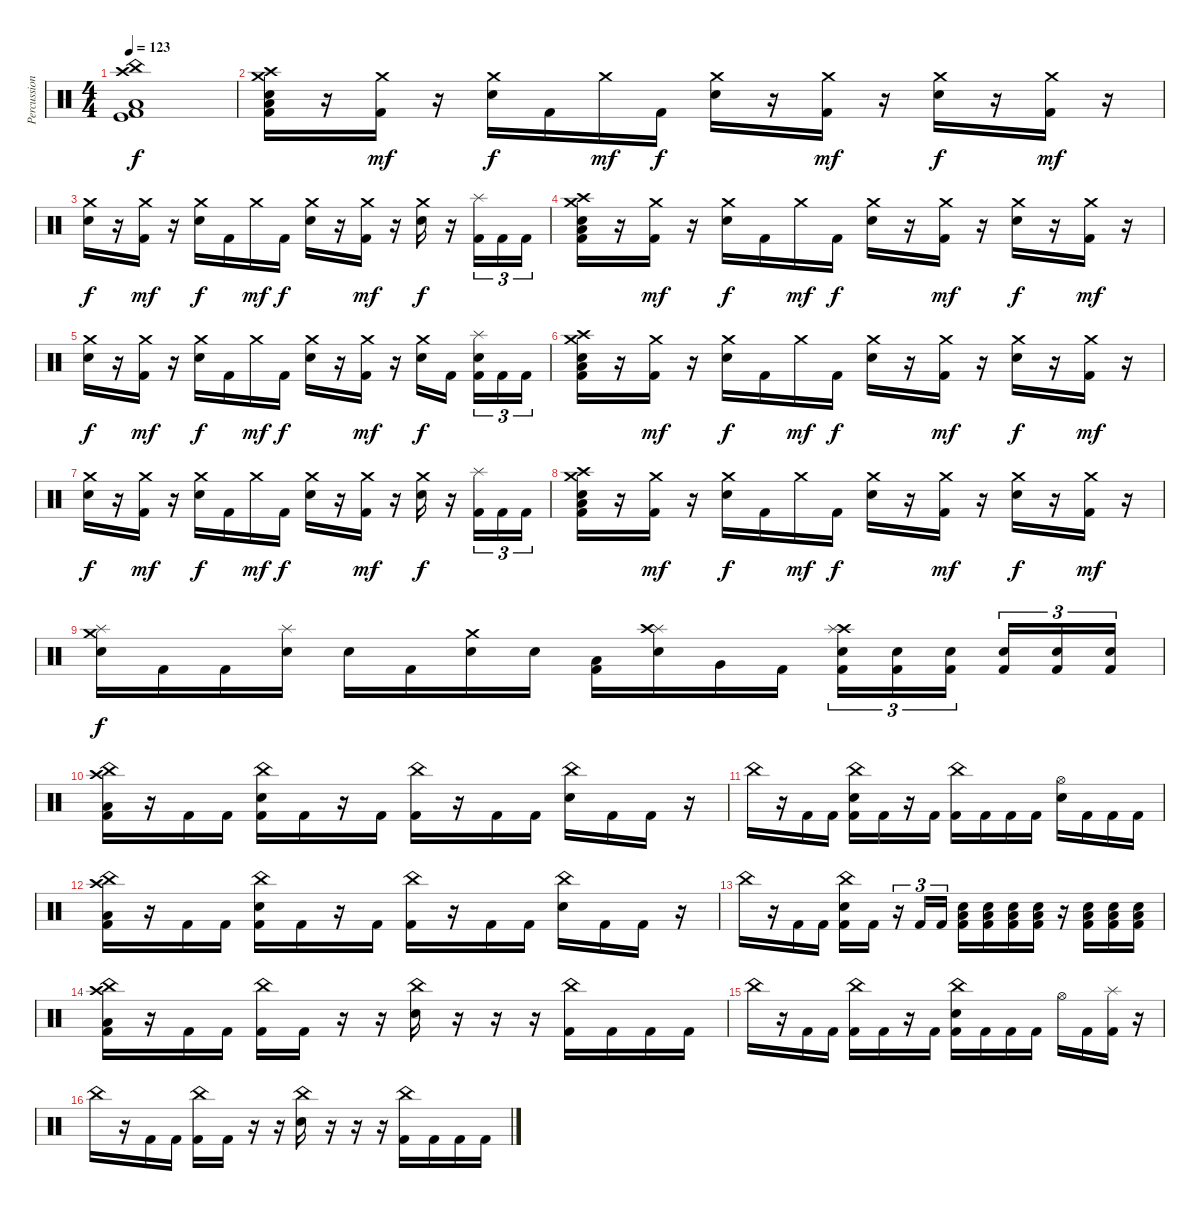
\track ("Percussion" "Percussion") {instrument percussion}
\staff {score}
\articulation defaults
\ts (4 4)
\tempo 123
\clef neutral
\ks c
("China (hit)" "Crash high (hit)" "Low Floor Tom (hit)" "Kick (hit)" "Kick (hit) 2").1{dy f} |
("Crash medium (hit)" "Crash high (hit)" "Electric Snare (hit)" "Low Floor Tom (hit)" "Kick (hit) 2").16 r.16 ("Crash medium (hit)" "Kick (hit) 2").16{dy mf} r.16 ("Crash medium (hit)" "Electric Snare (hit)").16{dy f} "Kick (hit) 2".16 "Crash medium (hit)".16{dy mf} "Kick (hit) 2".16{dy f} ("Crash medium (hit)" "Electric Snare (hit)").16 r.16 ("Crash medium (hit)" "Kick (hit) 2").16{dy mf} r.16 ("Crash medium (hit)" "Electric Snare (hit)").16{dy f} r.16 ("Crash medium (hit)" "Kick (hit) 2").16{dy mf} r.16 |
("Crash medium (hit)" "Electric Snare (hit)").16{dy f} r.16 ("Crash medium (hit)" "Kick (hit) 2").16{dy mf} r.16 ("Crash medium (hit)" "Electric Snare (hit)").16{dy f} "Kick (hit) 2".16 "Crash medium (hit)".16{dy mf} "Kick (hit) 2".16{dy f} ("Crash medium (hit)" "Electric Snare (hit)").16 r.16 ("Crash medium (hit)" "Kick (hit) 2").16{dy mf} r.16 ("Crash medium (hit)" "Electric Snare (hit)").16{dy f} r.16 ("Splash (hit)" "Kick (hit) 2").16{tu (3 2)} "Kick (hit) 2".16{tu (3 2)} "Kick (hit) 2".16{tu (3 2)} |
("Crash medium (hit)" "Crash high (hit)" "Electric Snare (hit)" "Low Floor Tom (hit)" "Kick (hit) 2").16 r.16 ("Crash medium (hit)" "Kick (hit) 2").16{dy mf} r.16 ("Crash medium (hit)" "Electric Snare (hit)").16{dy f} "Kick (hit) 2".16 "Crash medium (hit)".16{dy mf} "Kick (hit) 2".16{dy f} ("Crash medium (hit)" "Electric Snare (hit)").16 r.16 ("Crash medium (hit)" "Kick (hit) 2").16{dy mf} r.16 ("Crash medium (hit)" "Electric Snare (hit)").16{dy f} r.16 ("Crash medium (hit)" "Kick (hit) 2").16{dy mf} r.16 |
("Crash medium (hit)" "Electric Snare (hit)").16{dy f} r.16 ("Crash medium (hit)" "Kick (hit) 2").16{dy mf} r.16 ("Crash medium (hit)" "Electric Snare (hit)").16{dy f} "Kick (hit) 2".16 "Crash medium (hit)".16{dy mf} "Kick (hit) 2".16{dy f} ("Crash medium (hit)" "Electric Snare (hit)").16 r.16 ("Crash medium (hit)" "Kick (hit) 2").16{dy mf} r.16 ("Crash medium (hit)" "Electric Snare (hit)").16{dy f} "Kick (hit) 2".16 ("Splash (hit)" "Electric Snare (hit)" "Kick (hit) 2").16{tu (3 2)} "Kick (hit) 2".16{tu (3 2)} "Kick (hit) 2".16{tu (3 2)} |
("Crash medium (hit)" "Crash high (hit)" "Electric Snare (hit)" "Low Floor Tom (hit)" "Kick (hit) 2").16 r.16 ("Crash medium (hit)" "Kick (hit) 2").16{dy mf} r.16 ("Crash medium (hit)" "Electric Snare (hit)").16{dy f} "Kick (hit) 2".16 "Crash medium (hit)".16{dy mf} "Kick (hit) 2".16{dy f} ("Crash medium (hit)" "Electric Snare (hit)").16 r.16 ("Crash medium (hit)" "Kick (hit) 2").16{dy mf} r.16 ("Crash medium (hit)" "Electric Snare (hit)").16{dy f} r.16 ("Crash medium (hit)" "Kick (hit) 2").16{dy mf} r.16 |
("Crash medium (hit)" "Electric Snare (hit)").16{dy f} r.16 ("Crash medium (hit)" "Kick (hit) 2").16{dy mf} r.16 ("Crash medium (hit)" "Electric Snare (hit)").16{dy f} "Kick (hit) 2".16 "Crash medium (hit)".16{dy mf} "Kick (hit) 2".16{dy f} ("Crash medium (hit)" "Electric Snare (hit)").16 r.16 ("Crash medium (hit)" "Kick (hit) 2").16{dy mf} r.16 ("Crash medium (hit)" "Electric Snare (hit)").16{dy f} r.16 ("Splash (hit)" "Kick (hit) 2").16{tu (3 2)} "Kick (hit) 2".16{tu (3 2)} "Kick (hit) 2".16{tu (3 2)} |
("Crash medium (hit)" "Crash high (hit)" "Electric Snare (hit)" "Low Floor Tom (hit)" "Kick (hit) 2").16 r.16 ("Crash medium (hit)" "Kick (hit) 2").16{dy mf} r.16 ("Crash medium (hit)" "Electric Snare (hit)").16{dy f} "Kick (hit) 2".16 "Crash medium (hit)".16{dy mf} "Kick (hit) 2".16{dy f} ("Crash medium (hit)" "Electric Snare (hit)").16 r.16 ("Crash medium (hit)" "Kick (hit) 2").16{dy mf} r.16 ("Crash medium (hit)" "Electric Snare (hit)").16{dy f} r.16 ("Crash medium (hit)" "Kick (hit) 2").16{dy mf} r.16 |
("Crash medium (hit)" "Splash (hit)" "Electric Snare (hit)").16{dy f} "Kick (hit) 2".16 "Kick (hit) 2".16 ("Splash (hit)" "Electric Snare (hit)").16 "Electric Snare (hit)".16 "Kick (hit) 2".16 ("Crash medium (hit)" "Electric Snare (hit)").16 "Electric Snare (hit)".16 ("Low Tom (hit)" "Kick (hit) 2").16 ("Splash (hit)" "Crash high (hit)" "Electric Snare (hit)").16 "Very Low Tom (hit)".16 "Kick (hit) 2".16 ("Crash high (hit)" "Splash (hit)" "Electric Snare (hit)" "Kick (hit) 2").16{tu (3 2)} ("Electric Snare (hit)" "Kick (hit) 2").16{tu (3 2)} ("Electric Snare (hit)" "Kick (hit) 2").16{tu (3 2)} ("Electric Snare (hit)" "Kick (hit) 2").16{tu (3 2)} ("Electric Snare (hit)" "Kick (hit) 2").16{tu (3 2)} ("Electric Snare (hit)" "Kick (hit) 2").16{tu (3 2)} |
("Crash high (hit)" "China (hit)" "Low Floor Tom (hit)" "Kick (hit) 2").16 r.16 "Kick (hit) 2".16 "Kick (hit) 2".16 ("China (hit)" "Electric Snare (hit)" "Kick (hit) 2").16 "Kick (hit) 2".16 r.16 "Kick (hit) 2".16 ("China (hit)" "Kick (hit) 2").16 r.16 "Kick (hit) 2".16 "Kick (hit) 2".16 ("China (hit)" "Electric Snare (hit)").16 "Kick (hit) 2".16 "Kick (hit) 2".16 r.16 |
"China (hit)".16 r.16 "Kick (hit) 2".16 "Kick (hit) 2".16 ("China (hit)" "Electric Snare (hit)" "Kick (hit) 2").16 "Kick (hit) 2".16 r.16 "Kick (hit) 2".16 ("China (hit)" "Kick (hit) 2").16 "Kick (hit) 2".16 "Kick (hit) 2".16 "Kick (hit) 2".16 ("Hi-Hat (open)" "Electric Snare (hit)").16 "Kick (hit) 2".16 "Kick (hit) 2".16 "Kick (hit) 2".16 |
("Crash high (hit)" "China (hit)" "Low Floor Tom (hit)" "Kick (hit) 2").16 r.16 "Kick (hit) 2".16 "Kick (hit) 2".16 ("China (hit)" "Electric Snare (hit)" "Kick (hit) 2").16 "Kick (hit) 2".16 r.16 "Kick (hit) 2".16 ("China (hit)" "Kick (hit) 2").16 r.16 "Kick (hit) 2".16 "Kick (hit) 2".16 ("China (hit)" "Electric Snare (hit)").16 "Kick (hit) 2".16 "Kick (hit) 2".16 r.16 |
"China (hit)".16 r.16 "Kick (hit) 2".16 "Kick (hit) 2".16 ("China (hit)" "Electric Snare (hit)" "Kick (hit) 2").16 "Kick (hit) 2".16 r.16{tu (3 2)} "Kick (hit) 2".16{tu (3 2)} "Kick (hit) 2".16{tu (3 2)} ("Electric Snare (hit)" "Kick (hit) 2" "Low Floor Tom (hit)").16 ("Electric Snare (hit)" "Kick (hit) 2" "Low Floor Tom (hit)").16 ("Electric Snare (hit)" "Kick (hit) 2" "Low Floor Tom (hit)").16 ("Electric Snare (hit)" "Kick (hit) 2" "Low Floor Tom (hit)").16 r.16 ("Electric Snare (hit)" "Kick (hit) 2" "Low Floor Tom (hit)").16 ("Electric Snare (hit)" "Kick (hit) 2" "Low Floor Tom (hit)").16 ("Electric Snare (hit)" "Kick (hit) 2" "Low Floor Tom (hit)").16 |
("Crash high (hit)" "China (hit)" "Low Floor Tom (hit)" "Kick (hit) 2").16 r.16 "Kick (hit) 2".16 "Kick (hit) 2".16 ("China (hit)" "Kick (hit) 2").16 "Kick (hit) 2".16 r.16 r.16 ("China (hit)" "Electric Snare (hit)").16 r.16 r.16 r.16 ("China (hit)" "Kick (hit) 2").16 "Kick (hit) 2".16 "Kick (hit) 2".16 "Kick (hit) 2".16 |
"China (hit)".16 r.16 "Kick (hit) 2".16 "Kick (hit) 2".16 ("China (hit)" "Kick (hit) 2").16 "Kick (hit) 2".16 r.16 "Kick (hit) 2".16 ("China (hit)" "Electric Snare (hit)" "Kick (hit) 2").16 "Kick (hit) 2".16 "Kick (hit) 2".16 "Kick (hit) 2".16 "Hi-Hat (open)".16 "Kick (hit) 2".16 ("Splash (hit)" "Kick (hit) 2").16 r.16 |
"China (hit)".16 r.16 "Kick (hit) 2".16 "Kick (hit) 2".16 ("China (hit)" "Kick (hit) 2").16 "Kick (hit) 2".16 r.16 r.16 ("China (hit)" "Electric Snare (hit)").16 r.16 r.16 r.16 ("China (hit)" "Kick (hit) 2").16 "Kick (hit) 2".16 "Kick (hit) 2".16 "Kick (hit) 2".16
